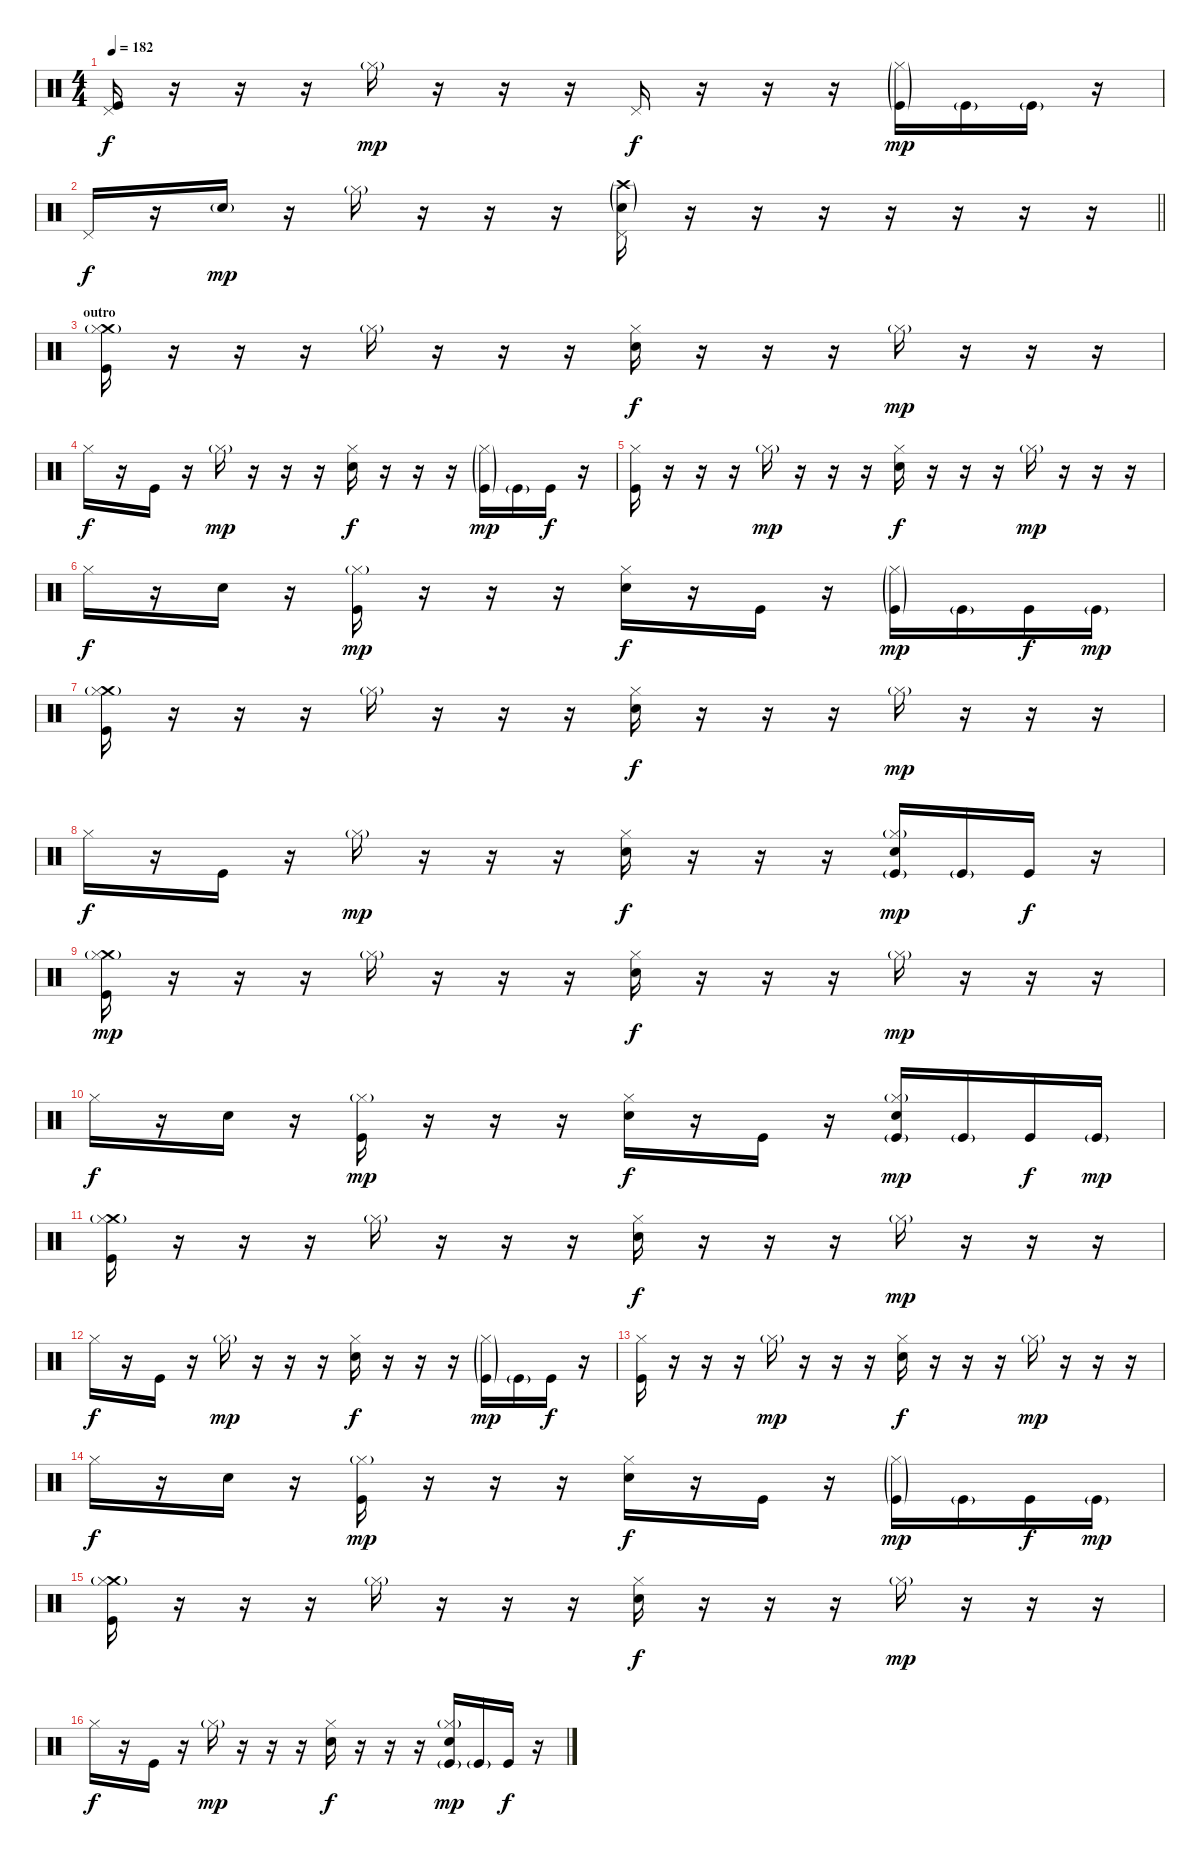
\track "" {instrument percussion}
\staff {score}
\articulation defaults
\ts (4 4)
\tempo 182
\clef neutral
\ks c
("Kick (hit)" "Pedal Hi-Hat (hit)").16{dy f} r.16 r.16 r.16 "Hi-Hat (closed)"{g}.16{dy mp} r.16 r.16 r.16 "Pedal Hi-Hat (hit)".16{dy f} r.16 r.16 r.16 ("Kick (hit)"{g} "Hi-Hat (closed)"{g}).16{dy mp} "Kick (hit)"{g}.16 "Kick (hit)"{g}.16 r.16 |
\barLineRight lightlight "Pedal Hi-Hat (hit)".16{dy f}
r.16 "Electric Snare (hit)"{g}.16{dy mp} r.16 "Hi-Hat (closed)"{g}.16 r.16 r.16 r.16 ("Crash high (hit)"{g} "Pedal Hi-Hat (hit)" "Electric Snare (hit)"{g}).16 r.16 r.16 r.16 r.16 r.16 r.16 r.16 |
\section ("" "outro")
("Crash medium (hit)"{g} "Kick (hit)" "Hi-Hat (closed)").16 r.16 r.16 r.16 "Hi-Hat (closed)"{g}.16 r.16 r.16 r.16 ("Hi-Hat (closed)" "Electric Snare (hit)").16{dy f} r.16 r.16 r.16 "Hi-Hat (closed)"{g}.16{dy mp} r.16 r.16 r.16 |
"Hi-Hat (closed)".16{dy f} r.16 "Kick (hit)".16 r.16 "Hi-Hat (closed)"{g}.16{dy mp} r.16 r.16 r.16 ("Hi-Hat (closed)" "Electric Snare (hit)").16{dy f} r.16 r.16 r.16 ("Kick (hit)"{g} "Hi-Hat (closed)"{g}).16{dy mp} "Kick (hit)"{g}.16 "Kick (hit)".16{dy f} r.16 |
("Kick (hit)" "Hi-Hat (closed)").16 r.16 r.16 r.16 "Hi-Hat (closed)"{g}.16{dy mp} r.16 r.16 r.16 ("Hi-Hat (closed)" "Electric Snare (hit)").16{dy f} r.16 r.16 r.16 "Hi-Hat (closed)"{g}.16{dy mp} r.16 r.16 r.16 |
"Hi-Hat (closed)".16{dy f} r.16 "Electric Snare (hit)".16 r.16 ("Kick (hit)" "Hi-Hat (closed)"{g}).16{dy mp} r.16 r.16 r.16 ("Hi-Hat (closed)" "Electric Snare (hit)").16{dy f} r.16 "Kick (hit)".16 r.16 ("Kick (hit)"{g} "Hi-Hat (closed)"{g}).16{dy mp} "Kick (hit)"{g}.16 "Kick (hit)".16{dy f} "Kick (hit)"{g}.16{dy mp} |
("Crash medium (hit)"{g} "Kick (hit)" "Hi-Hat (closed)").16 r.16 r.16 r.16 "Hi-Hat (closed)"{g}.16 r.16 r.16 r.16 ("Hi-Hat (closed)" "Electric Snare (hit)").16{dy f} r.16 r.16 r.16 "Hi-Hat (closed)"{g}.16{dy mp} r.16 r.16 r.16 |
"Hi-Hat (closed)".16{dy f} r.16 "Kick (hit)".16 r.16 "Hi-Hat (closed)"{g}.16{dy mp} r.16 r.16 r.16 ("Hi-Hat (closed)" "Electric Snare (hit)").16{dy f} r.16 r.16 r.16 ("Kick (hit)"{g} "Hi-Hat (closed)"{g} "Electric Snare (hit)").16{dy mp} "Kick (hit)"{g}.16 "Kick (hit)".16{dy f} r.16 |
("Crash medium (hit)"{g} "Kick (hit)" "Hi-Hat (closed)").16{dy mp} r.16 r.16 r.16 "Hi-Hat (closed)"{g}.16 r.16 r.16 r.16 ("Hi-Hat (closed)" "Electric Snare (hit)").16{dy f} r.16 r.16 r.16 "Hi-Hat (closed)"{g}.16{dy mp} r.16 r.16 r.16 |
"Hi-Hat (closed)".16{dy f} r.16 "Electric Snare (hit)".16 r.16 ("Kick (hit)" "Hi-Hat (closed)"{g}).16{dy mp} r.16 r.16 r.16 ("Hi-Hat (closed)" "Electric Snare (hit)").16{dy f} r.16 "Kick (hit)".16 r.16 ("Kick (hit)"{g} "Hi-Hat (closed)"{g} "Electric Snare (hit)").16{dy mp} "Kick (hit)"{g}.16 "Kick (hit)".16{dy f} "Kick (hit)"{g}.16{dy mp} |
("Crash medium (hit)"{g} "Kick (hit)" "Hi-Hat (closed)").16 r.16 r.16 r.16 "Hi-Hat (closed)"{g}.16 r.16 r.16 r.16 ("Hi-Hat (closed)" "Electric Snare (hit)").16{dy f} r.16 r.16 r.16 "Hi-Hat (closed)"{g}.16{dy mp} r.16 r.16 r.16 |
"Hi-Hat (closed)".16{dy f} r.16 "Kick (hit)".16 r.16 "Hi-Hat (closed)"{g}.16{dy mp} r.16 r.16 r.16 ("Hi-Hat (closed)" "Electric Snare (hit)").16{dy f} r.16 r.16 r.16 ("Kick (hit)"{g} "Hi-Hat (closed)"{g}).16{dy mp} "Kick (hit)"{g}.16 "Kick (hit)".16{dy f} r.16 |
("Kick (hit)" "Hi-Hat (closed)").16 r.16 r.16 r.16 "Hi-Hat (closed)"{g}.16{dy mp} r.16 r.16 r.16 ("Hi-Hat (closed)" "Electric Snare (hit)").16{dy f} r.16 r.16 r.16 "Hi-Hat (closed)"{g}.16{dy mp} r.16 r.16 r.16 |
"Hi-Hat (closed)".16{dy f} r.16 "Electric Snare (hit)".16 r.16 ("Kick (hit)" "Hi-Hat (closed)"{g}).16{dy mp} r.16 r.16 r.16 ("Hi-Hat (closed)" "Electric Snare (hit)").16{dy f} r.16 "Kick (hit)".16 r.16 ("Kick (hit)"{g} "Hi-Hat (closed)"{g}).16{dy mp} "Kick (hit)"{g}.16 "Kick (hit)".16{dy f} "Kick (hit)"{g}.16{dy mp} |
("Crash medium (hit)"{g} "Kick (hit)" "Hi-Hat (closed)").16 r.16 r.16 r.16 "Hi-Hat (closed)"{g}.16 r.16 r.16 r.16 ("Hi-Hat (closed)" "Electric Snare (hit)").16{dy f} r.16 r.16 r.16 "Hi-Hat (closed)"{g}.16{dy mp} r.16 r.16 r.16 |
"Hi-Hat (closed)".16{dy f} r.16 "Kick (hit)".16 r.16 "Hi-Hat (closed)"{g}.16{dy mp} r.16 r.16 r.16 ("Hi-Hat (closed)" "Electric Snare (hit)").16{dy f} r.16 r.16 r.16 ("Kick (hit)"{g} "Hi-Hat (closed)"{g} "Electric Snare (hit)").16{dy mp} "Kick (hit)"{g}.16 "Kick (hit)".16{dy f} r.16
